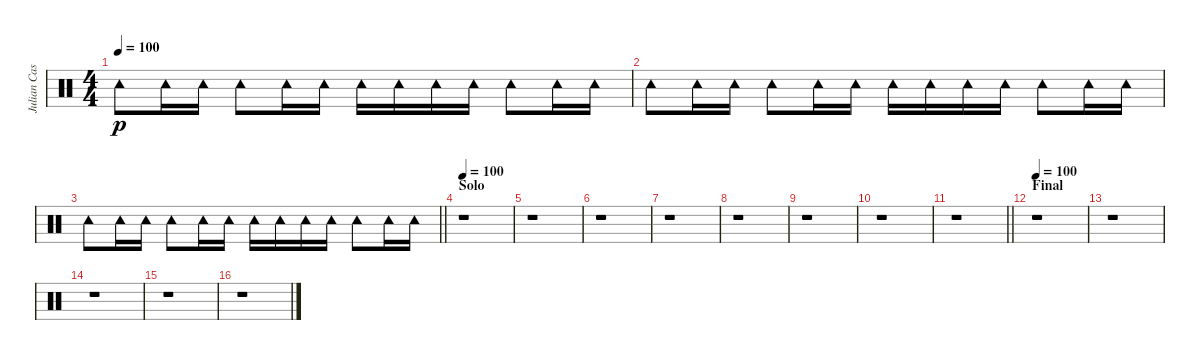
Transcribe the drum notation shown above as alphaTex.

\track ("Julian Casablancas" "Julian Cas") {instrument percussion}
\staff {score}
\articulation defaults
\ts (4 4)
\tempo 100
\clef neutral
\ks c "Tambourine (hit)".8{dy p} "Tambourine (hit)".16 "Tambourine (hit)".16 "Tambourine (hit)".8 "Tambourine (hit)".16 "Tambourine (hit)".16 "Tambourine (hit)".16 "Tambourine (hit)".16 "Tambourine (hit)".16 "Tambourine (hit)".16 "Tambourine (hit)".8 "Tambourine (hit)".16 "Tambourine (hit)".16
|
"Tambourine (hit)".8 "Tambourine (hit)".16 "Tambourine (hit)".16 "Tambourine (hit)".8 "Tambourine (hit)".16 "Tambourine (hit)".16 "Tambourine (hit)".16 "Tambourine (hit)".16 "Tambourine (hit)".16 "Tambourine (hit)".16 "Tambourine (hit)".8 "Tambourine (hit)".16 "Tambourine (hit)".16 |
\barLineRight lightlight "Tambourine (hit)".8 "Tambourine (hit)".16 "Tambourine (hit)".16 "Tambourine (hit)".8 "Tambourine (hit)".16 "Tambourine (hit)".16 "Tambourine (hit)".16 "Tambourine (hit)".16 "Tambourine (hit)".16 "Tambourine (hit)".16 "Tambourine (hit)".8 "Tambourine (hit)".16 "Tambourine (hit)".16
|
\section ("" "Solo")
\tempo 100
r.1 |
r.1 |
r.1 |
r.1 |
r.1 |
r.1 |
r.1 |
\barLineRight lightlight
r.1 |
\section ("" "Final")
\tempo 100
r.1 |
r.1 |
r.1 |
r.1 |
r.1
